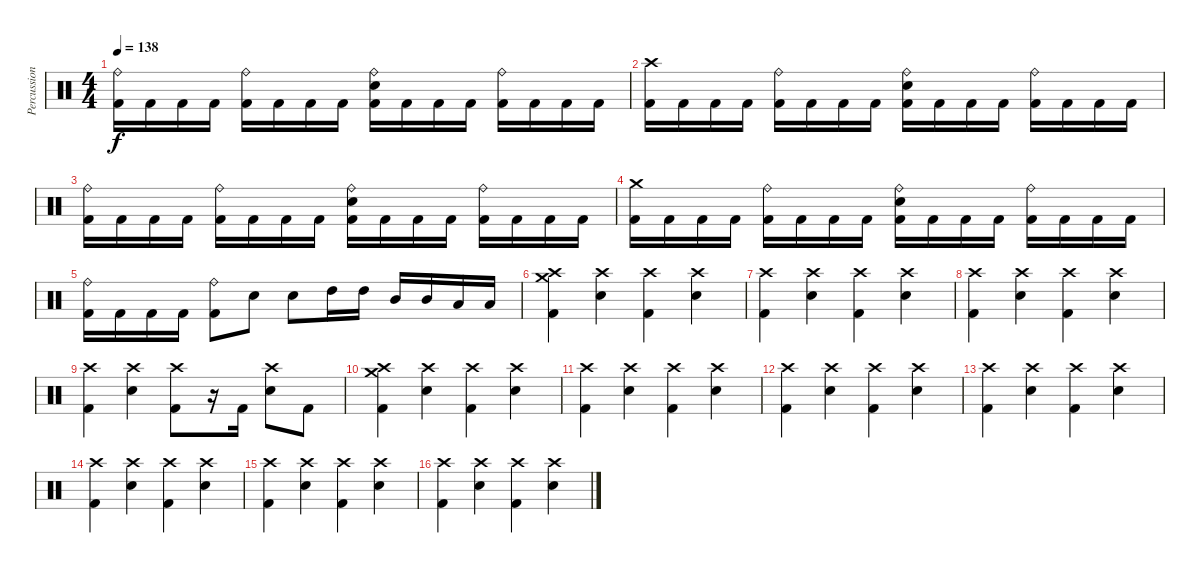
\track ("Percussion" "Percussion") {instrument percussion}
\staff {score}
\articulation defaults
\ts (4 4)
\tempo 138
\clef neutral
\ks c
("Ride (bell)" "Kick (hit) 2").16{dy f} "Kick (hit) 2".16 "Kick (hit) 2".16 "Kick (hit) 2".16 ("Ride (bell)" "Kick (hit) 2").16 "Kick (hit) 2".16 "Kick (hit) 2".16 "Kick (hit) 2".16 ("Ride (bell)" "Electric Snare (hit)" "Kick (hit) 2").16 "Kick (hit) 2".16 "Kick (hit) 2".16 "Kick (hit) 2".16 ("Ride (bell)" "Kick (hit) 2").16 "Kick (hit) 2".16 "Kick (hit) 2".16 "Kick (hit) 2".16 |
("Crash high (hit)" "Kick (hit) 2").16 "Kick (hit) 2".16 "Kick (hit) 2".16 "Kick (hit) 2".16 ("Ride (bell)" "Kick (hit) 2").16 "Kick (hit) 2".16 "Kick (hit) 2".16 "Kick (hit) 2".16 ("Ride (bell)" "Electric Snare (hit)" "Kick (hit) 2").16 "Kick (hit) 2".16 "Kick (hit) 2".16 "Kick (hit) 2".16 ("Ride (bell)" "Kick (hit) 2").16 "Kick (hit) 2".16 "Kick (hit) 2".16 "Kick (hit) 2".16 |
("Ride (bell)" "Kick (hit) 2").16 "Kick (hit) 2".16 "Kick (hit) 2".16 "Kick (hit) 2".16 ("Ride (bell)" "Kick (hit) 2").16 "Kick (hit) 2".16 "Kick (hit) 2".16 "Kick (hit) 2".16 ("Ride (bell)" "Electric Snare (hit)" "Kick (hit) 2").16 "Kick (hit) 2".16 "Kick (hit) 2".16 "Kick (hit) 2".16 ("Ride (bell)" "Kick (hit) 2").16 "Kick (hit) 2".16 "Kick (hit) 2".16 "Kick (hit) 2".16 |
("Crash medium (hit)" "Kick (hit) 2").16 "Kick (hit) 2".16 "Kick (hit) 2".16 "Kick (hit) 2".16 ("Ride (bell)" "Kick (hit) 2").16 "Kick (hit) 2".16 "Kick (hit) 2".16 "Kick (hit) 2".16 ("Ride (bell)" "Electric Snare (hit)" "Kick (hit) 2").16 "Kick (hit) 2".16 "Kick (hit) 2".16 "Kick (hit) 2".16 ("Ride (bell)" "Kick (hit) 2").16 "Kick (hit) 2".16 "Kick (hit) 2".16 "Kick (hit) 2".16 |
("Ride (bell)" "Kick (hit) 2").16 "Kick (hit) 2".16 "Kick (hit) 2".16 "Kick (hit) 2".16 ("Ride (bell)" "Kick (hit) 2").8 "Electric Snare (hit)".8 "Electric Snare (hit)".8 "High Tom (hit)".16 "High Tom (hit)".16 "Mid Tom (hit)".16 "Mid Tom (hit)".16 "Low Tom (hit)".16 "Low Tom (hit)".16 |
("Crash high (hit)" "Crash medium (hit)" "Kick (hit) 2").4 ("Crash high (hit)" "Electric Snare (hit)").4 ("Crash high (hit)" "Kick (hit) 2").4 ("Crash high (hit)" "Electric Snare (hit)").4 |
("Crash high (hit)" "Kick (hit) 2").4 ("Crash high (hit)" "Electric Snare (hit)").4 ("Crash high (hit)" "Kick (hit) 2").4 ("Crash high (hit)" "Electric Snare (hit)").4 |
("Crash high (hit)" "Kick (hit) 2").4 ("Crash high (hit)" "Electric Snare (hit)").4 ("Crash high (hit)" "Kick (hit) 2").4 ("Crash high (hit)" "Electric Snare (hit)").4 |
("Crash high (hit)" "Kick (hit) 2").4 ("Crash high (hit)" "Electric Snare (hit)").4 ("Crash high (hit)" "Kick (hit) 2").8 r.16 "Kick (hit) 2".16 ("Crash high (hit)" "Electric Snare (hit)").8 "Kick (hit) 2".8 |
("Crash high (hit)" "Crash medium (hit)" "Kick (hit) 2").4 ("Crash high (hit)" "Electric Snare (hit)").4 ("Crash high (hit)" "Kick (hit) 2").4 ("Crash high (hit)" "Electric Snare (hit)").4 |
("Crash high (hit)" "Kick (hit) 2").4 ("Crash high (hit)" "Electric Snare (hit)").4 ("Crash high (hit)" "Kick (hit) 2").4 ("Crash high (hit)" "Electric Snare (hit)").4 |
("Crash high (hit)" "Kick (hit) 2").4 ("Crash high (hit)" "Electric Snare (hit)").4 ("Crash high (hit)" "Kick (hit) 2").4 ("Crash high (hit)" "Electric Snare (hit)").4 |
("Crash high (hit)" "Kick (hit) 2").4 ("Crash high (hit)" "Electric Snare (hit)").4 ("Crash high (hit)" "Kick (hit) 2").4 ("Crash high (hit)" "Electric Snare (hit)").4 |
("Crash high (hit)" "Kick (hit) 2").4 ("Crash high (hit)" "Electric Snare (hit)").4 ("Crash high (hit)" "Kick (hit) 2").4 ("Crash high (hit)" "Electric Snare (hit)").4 |
("Crash high (hit)" "Kick (hit) 2").4 ("Crash high (hit)" "Electric Snare (hit)").4 ("Crash high (hit)" "Kick (hit) 2").4 ("Crash high (hit)" "Electric Snare (hit)").4 |
("Crash high (hit)" "Kick (hit) 2").4 ("Crash high (hit)" "Electric Snare (hit)").4 ("Crash high (hit)" "Kick (hit) 2").4 ("Crash high (hit)" "Electric Snare (hit)").4
